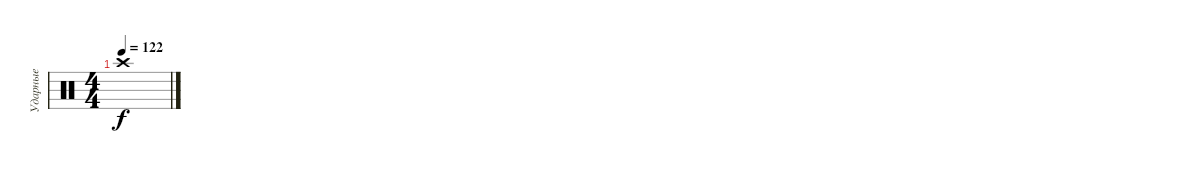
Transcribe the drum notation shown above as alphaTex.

\track ("Ударные" "Ударные") {instrument percussion}
\staff {score}
\articulation defaults
\ts (4 4)
\tempo 122
\clef neutral
\ks c "Crash high (hit)".1{dy f}
